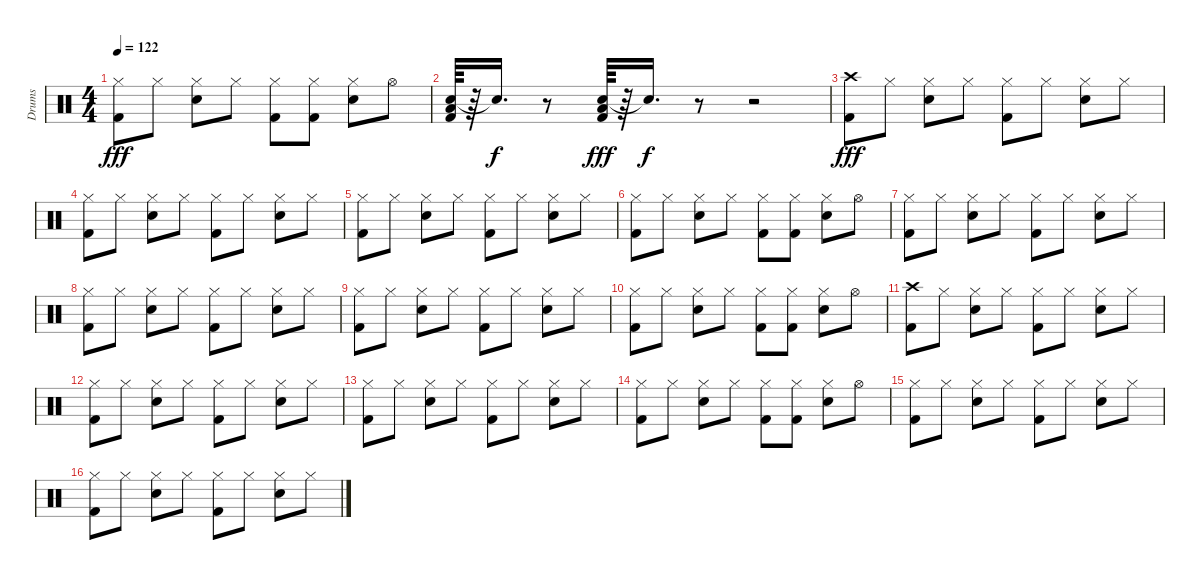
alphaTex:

\track ("Drums" "Drums") {instrument percussion}
\staff {score}
\articulation defaults
\ts (4 4)
\tempo 122
\clef neutral
\ks c
("Hi-Hat (closed)" "Kick (hit) 2").8{dy fff} "Hi-Hat (closed)".8 ("Hi-Hat (closed)" "Snare (hit) 2").8 "Hi-Hat (closed)".8 ("Hi-Hat (closed)" "Kick (hit) 2").8 ("Hi-Hat (closed)" "Kick (hit) 2").8 ("Hi-Hat (closed)" "Snare (hit) 2").8 "Hi-Hat (open)".8 |
("Snare (hit) 2" "Low Floor Tom (hit)" "Kick (hit) 2").64 r.64 "Snare (hit)"{t}.16{d dy f} r.8 ("Snare (hit) 2" "Low Floor Tom (hit)" "Kick (hit) 2").64{dy fff} r.64 "Snare (hit)"{t}.16{d dy f} r.8 r.2 |
("Crash high (hit)" "Kick (hit) 2").8{dy fff} "Hi-Hat (closed)".8 ("Hi-Hat (closed)" "Snare (hit) 2").8 "Hi-Hat (closed)".8 ("Hi-Hat (closed)" "Kick (hit) 2").8 "Hi-Hat (closed)".8 ("Hi-Hat (closed)" "Snare (hit) 2").8 "Hi-Hat (closed)".8 |
("Hi-Hat (closed)" "Kick (hit) 2").8 "Hi-Hat (closed)".8 ("Hi-Hat (closed)" "Snare (hit) 2").8 "Hi-Hat (closed)".8 ("Hi-Hat (closed)" "Kick (hit) 2").8 "Hi-Hat (closed)".8 ("Hi-Hat (closed)" "Snare (hit) 2").8 "Hi-Hat (closed)".8 |
("Hi-Hat (closed)" "Kick (hit) 2").8 "Hi-Hat (closed)".8 ("Hi-Hat (closed)" "Snare (hit) 2").8 "Hi-Hat (closed)".8 ("Hi-Hat (closed)" "Kick (hit) 2").8 "Hi-Hat (closed)".8 ("Hi-Hat (closed)" "Snare (hit) 2").8 "Hi-Hat (closed)".8 |
("Hi-Hat (closed)" "Kick (hit) 2").8 "Hi-Hat (closed)".8 ("Hi-Hat (closed)" "Snare (hit) 2").8 "Hi-Hat (closed)".8 ("Hi-Hat (closed)" "Kick (hit) 2").8 ("Hi-Hat (closed)" "Kick (hit) 2").8 ("Hi-Hat (closed)" "Snare (hit) 2").8 "Hi-Hat (open)".8 |
("Hi-Hat (closed)" "Kick (hit) 2").8 "Hi-Hat (closed)".8 ("Hi-Hat (closed)" "Snare (hit) 2").8 "Hi-Hat (closed)".8 ("Hi-Hat (closed)" "Kick (hit) 2").8 "Hi-Hat (closed)".8 ("Hi-Hat (closed)" "Snare (hit) 2").8 "Hi-Hat (closed)".8 |
("Hi-Hat (closed)" "Kick (hit) 2").8 "Hi-Hat (closed)".8 ("Hi-Hat (closed)" "Snare (hit) 2").8 "Hi-Hat (closed)".8 ("Hi-Hat (closed)" "Kick (hit) 2").8 "Hi-Hat (closed)".8 ("Hi-Hat (closed)" "Snare (hit) 2").8 "Hi-Hat (closed)".8 |
("Hi-Hat (closed)" "Kick (hit) 2").8 "Hi-Hat (closed)".8 ("Hi-Hat (closed)" "Snare (hit) 2").8 "Hi-Hat (closed)".8 ("Hi-Hat (closed)" "Kick (hit) 2").8 "Hi-Hat (closed)".8 ("Hi-Hat (closed)" "Snare (hit) 2").8 "Hi-Hat (closed)".8 |
("Hi-Hat (closed)" "Kick (hit) 2").8 "Hi-Hat (closed)".8 ("Hi-Hat (closed)" "Snare (hit) 2").8 "Hi-Hat (closed)".8 ("Hi-Hat (closed)" "Kick (hit) 2").8 ("Hi-Hat (closed)" "Kick (hit) 2").8 ("Hi-Hat (closed)" "Snare (hit) 2").8 "Hi-Hat (open)".8 |
("Crash high (hit)" "Kick (hit) 2").8 "Hi-Hat (closed)".8 ("Hi-Hat (closed)" "Snare (hit) 2").8 "Hi-Hat (closed)".8 ("Hi-Hat (closed)" "Kick (hit) 2").8 "Hi-Hat (closed)".8 ("Hi-Hat (closed)" "Snare (hit) 2").8 "Hi-Hat (closed)".8 |
("Hi-Hat (closed)" "Kick (hit) 2").8 "Hi-Hat (closed)".8 ("Hi-Hat (closed)" "Snare (hit) 2").8 "Hi-Hat (closed)".8 ("Hi-Hat (closed)" "Kick (hit) 2").8 "Hi-Hat (closed)".8 ("Hi-Hat (closed)" "Snare (hit) 2").8 "Hi-Hat (closed)".8 |
("Hi-Hat (closed)" "Kick (hit) 2").8 "Hi-Hat (closed)".8 ("Hi-Hat (closed)" "Snare (hit) 2").8 "Hi-Hat (closed)".8 ("Hi-Hat (closed)" "Kick (hit) 2").8 "Hi-Hat (closed)".8 ("Hi-Hat (closed)" "Snare (hit) 2").8 "Hi-Hat (closed)".8 |
("Hi-Hat (closed)" "Kick (hit) 2").8 "Hi-Hat (closed)".8 ("Hi-Hat (closed)" "Snare (hit) 2").8 "Hi-Hat (closed)".8 ("Hi-Hat (closed)" "Kick (hit) 2").8 ("Hi-Hat (closed)" "Kick (hit) 2").8 ("Hi-Hat (closed)" "Snare (hit) 2").8 "Hi-Hat (open)".8 |
("Hi-Hat (closed)" "Kick (hit) 2").8 "Hi-Hat (closed)".8 ("Hi-Hat (closed)" "Snare (hit) 2").8 "Hi-Hat (closed)".8 ("Hi-Hat (closed)" "Kick (hit) 2").8 "Hi-Hat (closed)".8 ("Hi-Hat (closed)" "Snare (hit) 2").8 "Hi-Hat (closed)".8 |
("Hi-Hat (closed)" "Kick (hit) 2").8 "Hi-Hat (closed)".8 ("Hi-Hat (closed)" "Snare (hit) 2").8 "Hi-Hat (closed)".8 ("Hi-Hat (closed)" "Kick (hit) 2").8 "Hi-Hat (closed)".8 ("Hi-Hat (closed)" "Snare (hit) 2").8 "Hi-Hat (closed)".8
